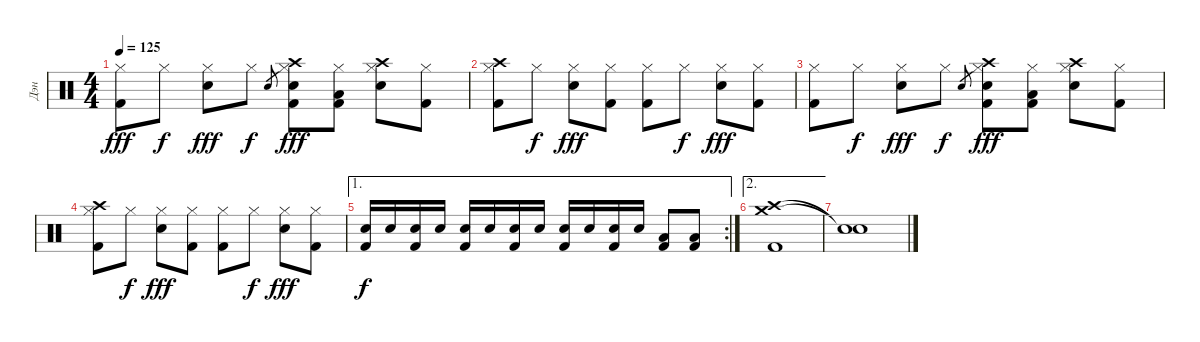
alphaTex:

\track ("Дэн" "Дэн") {instrument percussion}
\staff {score}
\articulation defaults
\ts (4 4)
\tempo 125
\clef neutral
\ks c
("Hi-Hat (closed)" "Kick (hit) 2").8{dy fff} "Hi-Hat (closed)".8{dy f} ("Hi-Hat (closed)" "Electric Snare (hit)").8{dy fff} "Hi-Hat (closed)".8{dy f} "Electric Snare (hit)".8{gr} ("Crash high (hit)" "Hi-Hat (closed)" "Electric Snare (hit)" "Kick (hit) 2").8{dy fff} ("Hi-Hat (closed)" "Low Tom (hit)" "Kick (hit) 2").8 ("Crash high (hit)" "Hi-Hat (closed)" "Electric Snare (hit)").8 ("Hi-Hat (closed)" "Kick (hit) 2").8 |
("Crash high (hit)" "Hi-Hat (closed)" "Kick (hit) 2").8 "Hi-Hat (closed)".8{dy f} ("Hi-Hat (closed)" "Electric Snare (hit)").8{dy fff} ("Hi-Hat (closed)" "Kick (hit) 2").8 ("Hi-Hat (closed)" "Kick (hit) 2").8 "Hi-Hat (closed)".8{dy f} ("Hi-Hat (closed)" "Electric Snare (hit)").8{dy fff} ("Hi-Hat (closed)" "Kick (hit) 2").8 |
("Hi-Hat (closed)" "Kick (hit) 2").8 "Hi-Hat (closed)".8{dy f} ("Hi-Hat (closed)" "Electric Snare (hit)").8{dy fff} "Hi-Hat (closed)".8{dy f} "Electric Snare (hit)".8{gr} ("Crash high (hit)" "Hi-Hat (closed)" "Electric Snare (hit)" "Kick (hit) 2").8{dy fff} ("Hi-Hat (closed)" "Low Tom (hit)" "Kick (hit) 2").8 ("Crash high (hit)" "Hi-Hat (closed)" "Electric Snare (hit)").8 ("Hi-Hat (closed)" "Kick (hit) 2").8 |
("Crash high (hit)" "Hi-Hat (closed)" "Kick (hit) 2").8 "Hi-Hat (closed)".8{dy f} ("Hi-Hat (closed)" "Electric Snare (hit)").8{dy fff} ("Hi-Hat (closed)" "Kick (hit) 2").8 ("Hi-Hat (closed)" "Kick (hit) 2").8 "Hi-Hat (closed)".8{dy f} ("Hi-Hat (closed)" "Electric Snare (hit)").8{dy fff} ("Hi-Hat (closed)" "Kick (hit) 2").8 |
\ae 1
\rc 2
("Electric Snare (hit)" "Kick (hit) 2").16{dy f} "Electric Snare (hit)".16 ("Electric Snare (hit)" "Kick (hit) 2").16 "Electric Snare (hit)".16 ("Electric Snare (hit)" "Kick (hit) 2").16 "Electric Snare (hit)".16 ("Electric Snare (hit)" "Kick (hit) 2").16 "Electric Snare (hit)".16 ("Electric Snare (hit)" "Kick (hit) 2").16 "Electric Snare (hit)".16 ("Electric Snare (hit)" "Kick (hit) 2").16 "Electric Snare (hit)".16 ("Low Tom (hit)" "Kick (hit) 2").8 ("Low Tom (hit)" "Kick (hit) 2").8 |
\ae 2
("Crash high (hit)" "Crash medium (hit)" "Kick (hit) 2").1 |
("Snare (hit)"{t} "Snare (hit)"{t}).1
